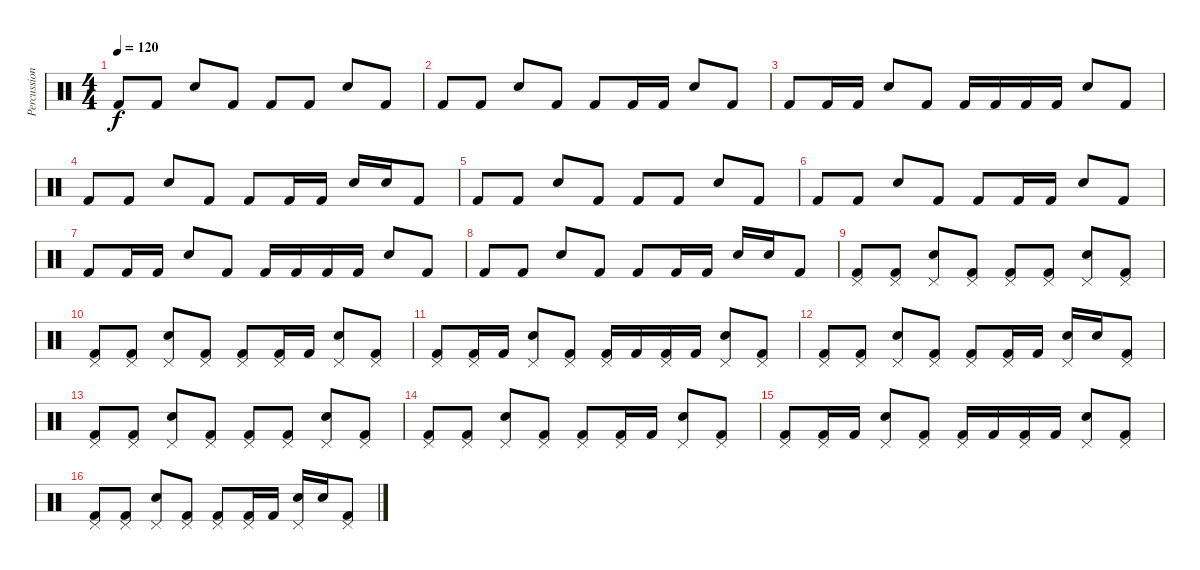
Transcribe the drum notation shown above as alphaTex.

\track ("Percussion" "Percussion") {instrument percussion}
\staff {score}
\articulation defaults
\ts (4 4)
\tempo 120
\clef neutral
\ks c "Kick (hit) 2".8{dy f volume 13} "Kick (hit) 2".8 "Electric Snare (hit)".8 "Kick (hit) 2".8 "Kick (hit) 2".8 "Kick (hit) 2".8 "Electric Snare (hit)".8 "Kick (hit) 2".8
|
"Kick (hit) 2".8 "Kick (hit) 2".8 "Electric Snare (hit)".8 "Kick (hit) 2".8 "Kick (hit) 2".8 "Kick (hit) 2".16 "Kick (hit) 2".16 "Electric Snare (hit)".8 "Kick (hit) 2".8 |
"Kick (hit) 2".8 "Kick (hit) 2".16 "Kick (hit) 2".16 "Electric Snare (hit)".8 "Kick (hit) 2".8 "Kick (hit) 2".16 "Kick (hit) 2".16 "Kick (hit) 2".16 "Kick (hit) 2".16 "Electric Snare (hit)".8 "Kick (hit) 2".8 |
"Kick (hit) 2".8 "Kick (hit) 2".8 "Electric Snare (hit)".8 "Kick (hit) 2".8 "Kick (hit) 2".8 "Kick (hit) 2".16 "Kick (hit) 2".16 "Electric Snare (hit)".16 "Electric Snare (hit)".16 "Kick (hit) 2".8 |
"Kick (hit) 2".8 "Kick (hit) 2".8 "Electric Snare (hit)".8 "Kick (hit) 2".8 "Kick (hit) 2".8 "Kick (hit) 2".8 "Electric Snare (hit)".8 "Kick (hit) 2".8 |
"Kick (hit) 2".8 "Kick (hit) 2".8 "Electric Snare (hit)".8 "Kick (hit) 2".8 "Kick (hit) 2".8 "Kick (hit) 2".16 "Kick (hit) 2".16 "Electric Snare (hit)".8 "Kick (hit) 2".8 |
"Kick (hit) 2".8 "Kick (hit) 2".16 "Kick (hit) 2".16 "Electric Snare (hit)".8 "Kick (hit) 2".8 "Kick (hit) 2".16 "Kick (hit) 2".16 "Kick (hit) 2".16 "Kick (hit) 2".16 "Electric Snare (hit)".8 "Kick (hit) 2".8 |
"Kick (hit) 2".8 "Kick (hit) 2".8 "Electric Snare (hit)".8 "Kick (hit) 2".8 "Kick (hit) 2".8 "Kick (hit) 2".16 "Kick (hit) 2".16 "Electric Snare (hit)".16 "Electric Snare (hit)".16 "Kick (hit) 2".8 |
("Kick (hit) 2" "Pedal Hi-Hat (hit)").8 ("Kick (hit) 2" "Pedal Hi-Hat (hit)").8 ("Electric Snare (hit)" "Pedal Hi-Hat (hit)").8 ("Kick (hit) 2" "Pedal Hi-Hat (hit)").8 ("Kick (hit) 2" "Pedal Hi-Hat (hit)").8 ("Kick (hit) 2" "Pedal Hi-Hat (hit)").8 ("Electric Snare (hit)" "Pedal Hi-Hat (hit)").8 ("Kick (hit) 2" "Pedal Hi-Hat (hit)").8 |
("Kick (hit) 2" "Pedal Hi-Hat (hit)").8 ("Kick (hit) 2" "Pedal Hi-Hat (hit)").8 ("Electric Snare (hit)" "Pedal Hi-Hat (hit)").8 ("Kick (hit) 2" "Pedal Hi-Hat (hit)").8 ("Kick (hit) 2" "Pedal Hi-Hat (hit)").8 ("Kick (hit) 2" "Pedal Hi-Hat (hit)").16 "Kick (hit) 2".16 ("Electric Snare (hit)" "Pedal Hi-Hat (hit)").8 ("Kick (hit) 2" "Pedal Hi-Hat (hit)").8 |
("Kick (hit) 2" "Pedal Hi-Hat (hit)").8 ("Kick (hit) 2" "Pedal Hi-Hat (hit)").16 "Kick (hit) 2".16 ("Electric Snare (hit)" "Pedal Hi-Hat (hit)").8 ("Kick (hit) 2" "Pedal Hi-Hat (hit)").8 ("Kick (hit) 2" "Pedal Hi-Hat (hit)").16 "Kick (hit) 2".16 ("Kick (hit) 2" "Pedal Hi-Hat (hit)").16 "Kick (hit) 2".16 ("Electric Snare (hit)" "Pedal Hi-Hat (hit)").8 ("Kick (hit) 2" "Pedal Hi-Hat (hit)").8 |
("Kick (hit) 2" "Pedal Hi-Hat (hit)").8 ("Kick (hit) 2" "Pedal Hi-Hat (hit)").8 ("Electric Snare (hit)" "Pedal Hi-Hat (hit)").8 ("Kick (hit) 2" "Pedal Hi-Hat (hit)").8 ("Kick (hit) 2" "Pedal Hi-Hat (hit)").8 ("Kick (hit) 2" "Pedal Hi-Hat (hit)").16 "Kick (hit) 2".16 ("Electric Snare (hit)" "Pedal Hi-Hat (hit)").16 "Electric Snare (hit)".16 ("Kick (hit) 2" "Pedal Hi-Hat (hit)").8 |
("Kick (hit) 2" "Pedal Hi-Hat (hit)").8 ("Kick (hit) 2" "Pedal Hi-Hat (hit)").8 ("Electric Snare (hit)" "Pedal Hi-Hat (hit)").8 ("Kick (hit) 2" "Pedal Hi-Hat (hit)").8 ("Kick (hit) 2" "Pedal Hi-Hat (hit)").8 ("Kick (hit) 2" "Pedal Hi-Hat (hit)").8 ("Electric Snare (hit)" "Pedal Hi-Hat (hit)").8 ("Kick (hit) 2" "Pedal Hi-Hat (hit)").8 |
("Kick (hit) 2" "Pedal Hi-Hat (hit)").8 ("Kick (hit) 2" "Pedal Hi-Hat (hit)").8 ("Electric Snare (hit)" "Pedal Hi-Hat (hit)").8 ("Kick (hit) 2" "Pedal Hi-Hat (hit)").8 ("Kick (hit) 2" "Pedal Hi-Hat (hit)").8 ("Kick (hit) 2" "Pedal Hi-Hat (hit)").16 "Kick (hit) 2".16 ("Electric Snare (hit)" "Pedal Hi-Hat (hit)").8 ("Kick (hit) 2" "Pedal Hi-Hat (hit)").8 |
("Kick (hit) 2" "Pedal Hi-Hat (hit)").8 ("Kick (hit) 2" "Pedal Hi-Hat (hit)").16 "Kick (hit) 2".16 ("Electric Snare (hit)" "Pedal Hi-Hat (hit)").8 ("Kick (hit) 2" "Pedal Hi-Hat (hit)").8 ("Kick (hit) 2" "Pedal Hi-Hat (hit)").16 "Kick (hit) 2".16 ("Kick (hit) 2" "Pedal Hi-Hat (hit)").16 "Kick (hit) 2".16 ("Electric Snare (hit)" "Pedal Hi-Hat (hit)").8 ("Kick (hit) 2" "Pedal Hi-Hat (hit)").8 |
("Kick (hit) 2" "Pedal Hi-Hat (hit)").8 ("Kick (hit) 2" "Pedal Hi-Hat (hit)").8 ("Electric Snare (hit)" "Pedal Hi-Hat (hit)").8 ("Kick (hit) 2" "Pedal Hi-Hat (hit)").8 ("Kick (hit) 2" "Pedal Hi-Hat (hit)").8 ("Kick (hit) 2" "Pedal Hi-Hat (hit)").16 "Kick (hit) 2".16 ("Electric Snare (hit)" "Pedal Hi-Hat (hit)").16 "Electric Snare (hit)".16 ("Kick (hit) 2" "Pedal Hi-Hat (hit)").8
